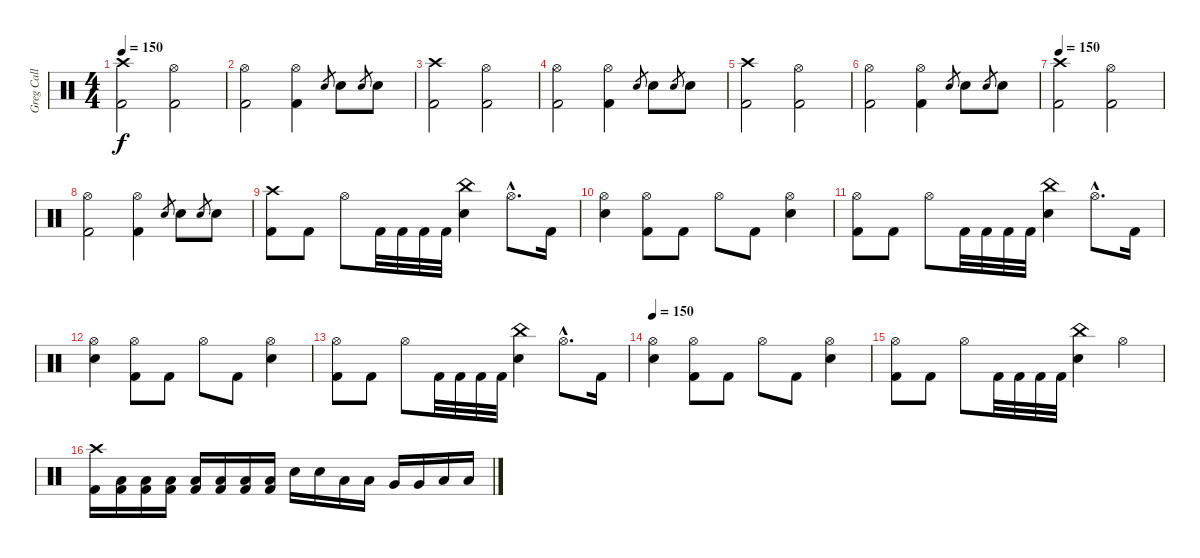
\track ("Greg Call" "Greg Call") {instrument percussion}
\staff {score}
\articulation defaults
\ts (4 4)
\tempo 150
\clef neutral
\ks c
("Crash high (hit)" "Kick (hit) 2").2{dy f} ("Hi-Hat (open)" "Kick (hit) 2").2 |
("Hi-Hat (open)" "Kick (hit) 2").2 ("Hi-Hat (open)" "Kick (hit) 2").4 "Snare (hit) 2".8{gr} "Snare (hit) 2".8 "Snare (hit) 2".8{gr} "Snare (hit) 2".8 |
("Crash high (hit)" "Kick (hit) 2").2 ("Hi-Hat (open)" "Kick (hit) 2").2 |
("Hi-Hat (open)" "Kick (hit) 2").2 ("Hi-Hat (open)" "Kick (hit) 2").4 "Snare (hit) 2".8{gr} "Snare (hit) 2".8 "Snare (hit) 2".8{gr} "Snare (hit) 2".8 |
("Crash high (hit)" "Kick (hit) 2").2 ("Hi-Hat (open)" "Kick (hit) 2").2 |
("Hi-Hat (open)" "Kick (hit) 2").2 ("Hi-Hat (open)" "Kick (hit) 2").4 "Snare (hit) 2".8{gr} "Snare (hit) 2".8 "Snare (hit) 2".8{gr} "Snare (hit) 2".8 |
\tempo 150
("Crash high (hit)" "Kick (hit) 2").2 ("Hi-Hat (open)" "Kick (hit) 2").2 |
("Hi-Hat (open)" "Kick (hit) 2").2 ("Hi-Hat (open)" "Kick (hit) 2").4 "Snare (hit) 2".8{gr} "Snare (hit) 2".8 "Snare (hit) 2".8{gr} "Snare (hit) 2".8 |
("Crash high (hit)" "Kick (hit) 2").8 "Kick (hit) 2".8 "Hi-Hat (open)".8 "Kick (hit) 2".32 "Kick (hit) 2".32 "Kick (hit) 2".32 "Kick (hit) 2".32 ("China (hit)" "Snare (hit) 2").4 "Hi-Hat (open)"{hac}.8{d} "Kick (hit) 2".16 |
("Hi-Hat (open)" "Snare (hit) 2").4 ("Hi-Hat (open)" "Kick (hit) 2").8 "Kick (hit) 2".8 "Hi-Hat (open)".8 "Kick (hit) 2".8 ("Hi-Hat (open)" "Snare (hit) 2").4 |
("Hi-Hat (open)" "Kick (hit) 2").8 "Kick (hit) 2".8 "Hi-Hat (open)".8 "Kick (hit) 2".32 "Kick (hit) 2".32 "Kick (hit) 2".32 "Kick (hit) 2".32 ("China (hit)" "Snare (hit) 2").4 "Hi-Hat (open)"{hac}.8{d} "Kick (hit) 2".16 |
("Hi-Hat (open)" "Snare (hit) 2").4 ("Hi-Hat (open)" "Kick (hit) 2").8 "Kick (hit) 2".8 "Hi-Hat (open)".8 "Kick (hit) 2".8 ("Hi-Hat (open)" "Snare (hit) 2").4 |
("Hi-Hat (open)" "Kick (hit) 2").8 "Kick (hit) 2".8 "Hi-Hat (open)".8 "Kick (hit) 2".32 "Kick (hit) 2".32 "Kick (hit) 2".32 "Kick (hit) 2".32 ("China (hit)" "Snare (hit) 2").4 "Hi-Hat (open)"{hac}.8{d} "Kick (hit) 2".16 |
\tempo 150
("Hi-Hat (open)" "Snare (hit) 2").4 ("Hi-Hat (open)" "Kick (hit) 2").8 "Kick (hit) 2".8 "Hi-Hat (open)".8 "Kick (hit) 2".8 ("Hi-Hat (open)" "Snare (hit) 2").4 |
("Hi-Hat (open)" "Kick (hit) 2").8 "Kick (hit) 2".8 "Hi-Hat (open)".8 "Kick (hit) 2".32 "Kick (hit) 2".32 "Kick (hit) 2".32 "Kick (hit) 2".32 ("China (hit)" "Snare (hit) 2").4 "Hi-Hat (open)".4 |
("Crash high (hit)" "Kick (hit) 2").16 ("Low Floor Tom (hit)" "Kick (hit) 2").16 ("Low Floor Tom (hit)" "Kick (hit) 2").16 ("Low Floor Tom (hit)" "Kick (hit) 2").16 ("Low Floor Tom (hit)" "Kick (hit) 2").16 ("Low Floor Tom (hit)" "Kick (hit) 2").16 ("Low Floor Tom (hit)" "Kick (hit) 2").16 ("Low Floor Tom (hit)" "Kick (hit) 2").16 "Snare (hit) 2".16 "Snare (hit) 2".16 "Low Tom (hit)".16 "Low Tom (hit)".16 "Very Low Tom (hit)".16 "Very Low Tom (hit)".16 "Low Floor Tom (hit)".16 "Low Floor Tom (hit)".16
